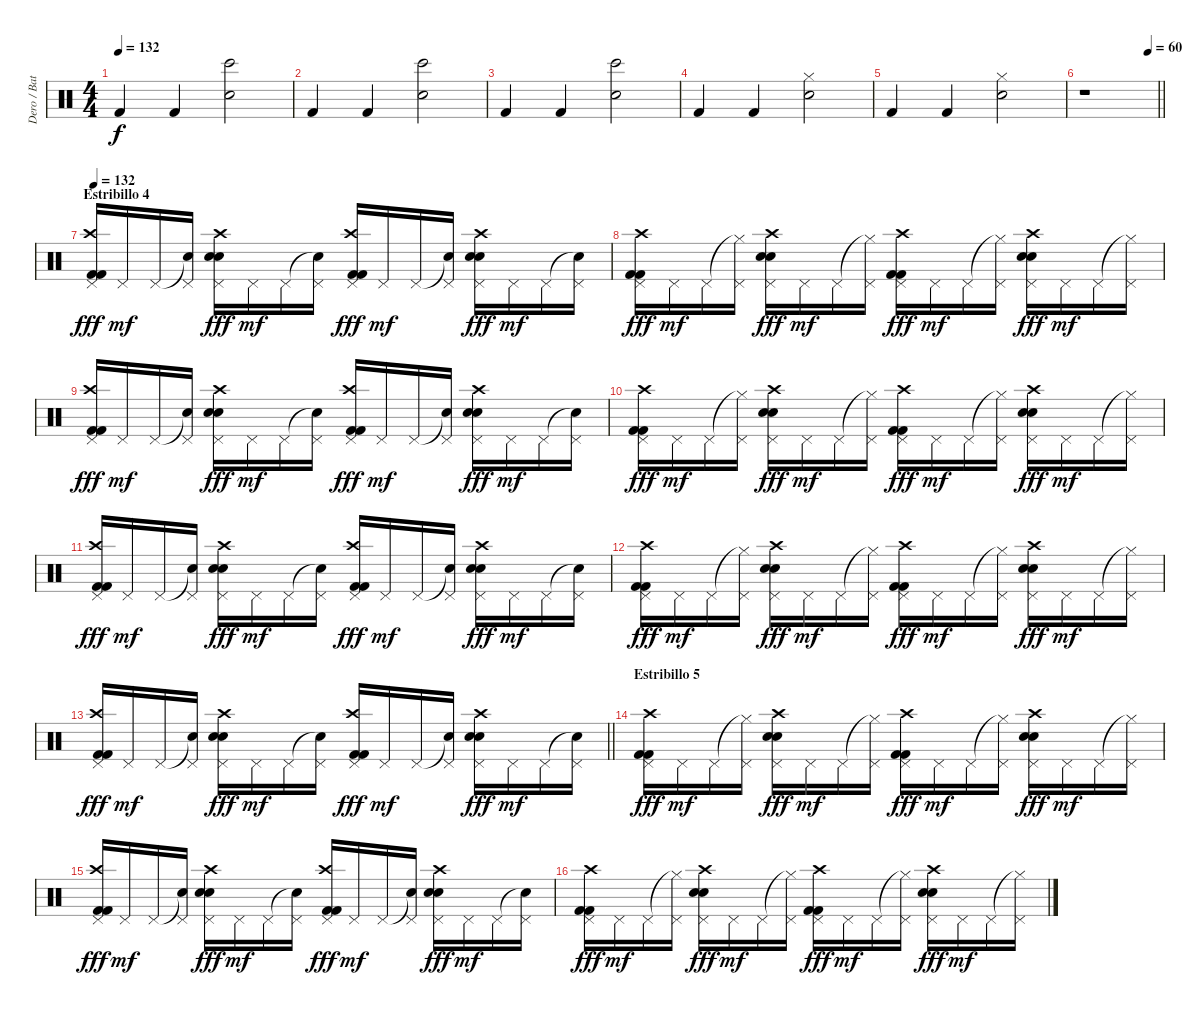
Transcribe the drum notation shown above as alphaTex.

\track ("Dero / Bateria" "Dero / Bat") {instrument percussion}
\staff {score}
\articulation defaults
\ts (4 4)
\tempo 132
\clef neutral
\ks c "Kick (hit) 2".4{dy f} "Kick (hit) 2".4
("Bongo High (hit)" "Snare (hit) 2").2 |
"Kick (hit) 2".4 "Kick (hit) 2".4 ("Bongo High (hit)" "Snare (hit) 2").2 |
"Kick (hit) 2".4 "Kick (hit) 2".4 ("Bongo High (hit)" "Snare (hit) 2").2 |
"Kick (hit) 2".4 "Kick (hit) 2".4 ("Hi-Hat (closed)" "Snare (hit) 2").2 |
"Kick (hit) 2".4 "Kick (hit) 2".4 ("Hi-Hat (closed)" "Snare (hit) 2").2 |
\tempo (60 0.875)
\barLineRight lightlight
r.1 |
\section ("" "Estribillo 4")
\tempo 132
("Crash high (hit)" "Pedal Hi-Hat (hit)" "Kick (hit) 2" "Kick (hit) 2").16{dy fff} "Pedal Hi-Hat (hit)".16{dy mf} "Pedal Hi-Hat (hit)".16 ("Snare (hit)"{t} "Pedal Hi-Hat (hit)").16 ("Crash high (hit)" "Pedal Hi-Hat (hit)" "Electric Snare (hit)" "Electric Snare (hit)").16{dy fff} "Pedal Hi-Hat (hit)".16{dy mf} "Pedal Hi-Hat (hit)".16 ("Snare (hit)"{t} "Pedal Hi-Hat (hit)").16 ("Crash high (hit)" "Pedal Hi-Hat (hit)" "Kick (hit) 2" "Kick (hit) 2").16{dy fff} "Pedal Hi-Hat (hit)".16{dy mf} "Pedal Hi-Hat (hit)".16 ("Snare (hit)"{t} "Pedal Hi-Hat (hit)").16 ("Crash high (hit)" "Pedal Hi-Hat (hit)" "Electric Snare (hit)" "Electric Snare (hit)").16{dy fff} "Pedal Hi-Hat (hit)".16{dy mf} "Pedal Hi-Hat (hit)".16 ("Snare (hit)"{t} "Pedal Hi-Hat (hit)").16 |
("Crash high (hit)" "Pedal Hi-Hat (hit)" "Kick (hit) 2" "Kick (hit) 2").16{dy fff} "Pedal Hi-Hat (hit)".16{dy mf} "Pedal Hi-Hat (hit)".16 ("Hi-Hat (closed)"{t} "Pedal Hi-Hat (hit)").16 ("Crash high (hit)" "Pedal Hi-Hat (hit)" "Electric Snare (hit)" "Electric Snare (hit)").16{dy fff} "Pedal Hi-Hat (hit)".16{dy mf} "Pedal Hi-Hat (hit)".16 ("Hi-Hat (closed)"{t} "Pedal Hi-Hat (hit)").16 ("Crash high (hit)" "Pedal Hi-Hat (hit)" "Kick (hit) 2" "Kick (hit) 2").16{dy fff} "Pedal Hi-Hat (hit)".16{dy mf} "Pedal Hi-Hat (hit)".16 ("Hi-Hat (closed)"{t} "Pedal Hi-Hat (hit)").16 ("Crash high (hit)" "Pedal Hi-Hat (hit)" "Electric Snare (hit)" "Electric Snare (hit)").16{dy fff} "Pedal Hi-Hat (hit)".16{dy mf} "Pedal Hi-Hat (hit)".16 ("Hi-Hat (closed)"{t} "Pedal Hi-Hat (hit)").16 |
("Crash high (hit)" "Pedal Hi-Hat (hit)" "Kick (hit) 2" "Kick (hit) 2").16{dy fff} "Pedal Hi-Hat (hit)".16{dy mf} "Pedal Hi-Hat (hit)".16 ("Snare (hit)"{t} "Pedal Hi-Hat (hit)").16 ("Crash high (hit)" "Pedal Hi-Hat (hit)" "Electric Snare (hit)" "Electric Snare (hit)").16{dy fff} "Pedal Hi-Hat (hit)".16{dy mf} "Pedal Hi-Hat (hit)".16 ("Snare (hit)"{t} "Pedal Hi-Hat (hit)").16 ("Crash high (hit)" "Pedal Hi-Hat (hit)" "Kick (hit) 2" "Kick (hit) 2").16{dy fff} "Pedal Hi-Hat (hit)".16{dy mf} "Pedal Hi-Hat (hit)".16 ("Snare (hit)"{t} "Pedal Hi-Hat (hit)").16 ("Crash high (hit)" "Pedal Hi-Hat (hit)" "Electric Snare (hit)" "Electric Snare (hit)").16{dy fff} "Pedal Hi-Hat (hit)".16{dy mf} "Pedal Hi-Hat (hit)".16 ("Snare (hit)"{t} "Pedal Hi-Hat (hit)").16 |
("Crash high (hit)" "Pedal Hi-Hat (hit)" "Kick (hit) 2" "Kick (hit) 2").16{dy fff} "Pedal Hi-Hat (hit)".16{dy mf} "Pedal Hi-Hat (hit)".16 ("Hi-Hat (closed)"{t} "Pedal Hi-Hat (hit)").16 ("Crash high (hit)" "Pedal Hi-Hat (hit)" "Electric Snare (hit)" "Electric Snare (hit)").16{dy fff} "Pedal Hi-Hat (hit)".16{dy mf} "Pedal Hi-Hat (hit)".16 ("Hi-Hat (closed)"{t} "Pedal Hi-Hat (hit)").16 ("Crash high (hit)" "Pedal Hi-Hat (hit)" "Kick (hit) 2" "Kick (hit) 2").16{dy fff} "Pedal Hi-Hat (hit)".16{dy mf} "Pedal Hi-Hat (hit)".16 ("Hi-Hat (closed)"{t} "Pedal Hi-Hat (hit)").16 ("Crash high (hit)" "Pedal Hi-Hat (hit)" "Electric Snare (hit)" "Electric Snare (hit)").16{dy fff} "Pedal Hi-Hat (hit)".16{dy mf} "Pedal Hi-Hat (hit)".16 ("Hi-Hat (closed)"{t} "Pedal Hi-Hat (hit)").16 |
("Crash high (hit)" "Pedal Hi-Hat (hit)" "Kick (hit) 2" "Kick (hit) 2").16{dy fff} "Pedal Hi-Hat (hit)".16{dy mf} "Pedal Hi-Hat (hit)".16 ("Snare (hit)"{t} "Pedal Hi-Hat (hit)").16 ("Crash high (hit)" "Pedal Hi-Hat (hit)" "Electric Snare (hit)" "Electric Snare (hit)").16{dy fff} "Pedal Hi-Hat (hit)".16{dy mf} "Pedal Hi-Hat (hit)".16 ("Snare (hit)"{t} "Pedal Hi-Hat (hit)").16 ("Crash high (hit)" "Pedal Hi-Hat (hit)" "Kick (hit) 2" "Kick (hit) 2").16{dy fff} "Pedal Hi-Hat (hit)".16{dy mf} "Pedal Hi-Hat (hit)".16 ("Snare (hit)"{t} "Pedal Hi-Hat (hit)").16 ("Crash high (hit)" "Pedal Hi-Hat (hit)" "Electric Snare (hit)" "Electric Snare (hit)").16{dy fff} "Pedal Hi-Hat (hit)".16{dy mf} "Pedal Hi-Hat (hit)".16 ("Snare (hit)"{t} "Pedal Hi-Hat (hit)").16 |
("Crash high (hit)" "Pedal Hi-Hat (hit)" "Kick (hit) 2" "Kick (hit) 2").16{dy fff} "Pedal Hi-Hat (hit)".16{dy mf} "Pedal Hi-Hat (hit)".16 ("Hi-Hat (closed)"{t} "Pedal Hi-Hat (hit)").16 ("Crash high (hit)" "Pedal Hi-Hat (hit)" "Electric Snare (hit)" "Electric Snare (hit)").16{dy fff} "Pedal Hi-Hat (hit)".16{dy mf} "Pedal Hi-Hat (hit)".16 ("Hi-Hat (closed)"{t} "Pedal Hi-Hat (hit)").16 ("Crash high (hit)" "Pedal Hi-Hat (hit)" "Kick (hit) 2" "Kick (hit) 2").16{dy fff} "Pedal Hi-Hat (hit)".16{dy mf} "Pedal Hi-Hat (hit)".16 ("Hi-Hat (closed)"{t} "Pedal Hi-Hat (hit)").16 ("Crash high (hit)" "Pedal Hi-Hat (hit)" "Electric Snare (hit)" "Electric Snare (hit)").16{dy fff} "Pedal Hi-Hat (hit)".16{dy mf} "Pedal Hi-Hat (hit)".16 ("Hi-Hat (closed)"{t} "Pedal Hi-Hat (hit)").16 |
\barLineRight lightlight
("Crash high (hit)" "Pedal Hi-Hat (hit)" "Kick (hit) 2" "Kick (hit) 2").16{dy fff} "Pedal Hi-Hat (hit)".16{dy mf} "Pedal Hi-Hat (hit)".16 ("Snare (hit)"{t} "Pedal Hi-Hat (hit)").16 ("Crash high (hit)" "Pedal Hi-Hat (hit)" "Electric Snare (hit)" "Electric Snare (hit)").16{dy fff} "Pedal Hi-Hat (hit)".16{dy mf} "Pedal Hi-Hat (hit)".16 ("Snare (hit)"{t} "Pedal Hi-Hat (hit)").16 ("Crash high (hit)" "Pedal Hi-Hat (hit)" "Kick (hit) 2" "Kick (hit) 2").16{dy fff} "Pedal Hi-Hat (hit)".16{dy mf} "Pedal Hi-Hat (hit)".16 ("Snare (hit)"{t} "Pedal Hi-Hat (hit)").16 ("Crash high (hit)" "Pedal Hi-Hat (hit)" "Electric Snare (hit)" "Electric Snare (hit)").16{dy fff} "Pedal Hi-Hat (hit)".16{dy mf} "Pedal Hi-Hat (hit)".16 ("Snare (hit)"{t} "Pedal Hi-Hat (hit)").16 |
\section ("" "Estribillo 5")
("Crash high (hit)" "Pedal Hi-Hat (hit)" "Kick (hit) 2" "Kick (hit) 2").16{dy fff} "Pedal Hi-Hat (hit)".16{dy mf} "Pedal Hi-Hat (hit)".16 ("Hi-Hat (closed)"{t} "Pedal Hi-Hat (hit)").16 ("Crash high (hit)" "Pedal Hi-Hat (hit)" "Electric Snare (hit)" "Electric Snare (hit)").16{dy fff} "Pedal Hi-Hat (hit)".16{dy mf} "Pedal Hi-Hat (hit)".16 ("Hi-Hat (closed)"{t} "Pedal Hi-Hat (hit)").16 ("Crash high (hit)" "Pedal Hi-Hat (hit)" "Kick (hit) 2" "Kick (hit) 2").16{dy fff} "Pedal Hi-Hat (hit)".16{dy mf} "Pedal Hi-Hat (hit)".16 ("Hi-Hat (closed)"{t} "Pedal Hi-Hat (hit)").16 ("Crash high (hit)" "Pedal Hi-Hat (hit)" "Electric Snare (hit)" "Electric Snare (hit)").16{dy fff} "Pedal Hi-Hat (hit)".16{dy mf} "Pedal Hi-Hat (hit)".16 ("Hi-Hat (closed)"{t} "Pedal Hi-Hat (hit)").16 |
("Crash high (hit)" "Pedal Hi-Hat (hit)" "Kick (hit) 2" "Kick (hit) 2").16{dy fff} "Pedal Hi-Hat (hit)".16{dy mf} "Pedal Hi-Hat (hit)".16 ("Snare (hit)"{t} "Pedal Hi-Hat (hit)").16 ("Crash high (hit)" "Pedal Hi-Hat (hit)" "Electric Snare (hit)" "Electric Snare (hit)").16{dy fff} "Pedal Hi-Hat (hit)".16{dy mf} "Pedal Hi-Hat (hit)".16 ("Snare (hit)"{t} "Pedal Hi-Hat (hit)").16 ("Crash high (hit)" "Pedal Hi-Hat (hit)" "Kick (hit) 2" "Kick (hit) 2").16{dy fff} "Pedal Hi-Hat (hit)".16{dy mf} "Pedal Hi-Hat (hit)".16 ("Snare (hit)"{t} "Pedal Hi-Hat (hit)").16 ("Crash high (hit)" "Pedal Hi-Hat (hit)" "Electric Snare (hit)" "Electric Snare (hit)").16{dy fff} "Pedal Hi-Hat (hit)".16{dy mf} "Pedal Hi-Hat (hit)".16 ("Snare (hit)"{t} "Pedal Hi-Hat (hit)").16 |
("Crash high (hit)" "Pedal Hi-Hat (hit)" "Kick (hit) 2" "Kick (hit) 2").16{dy fff} "Pedal Hi-Hat (hit)".16{dy mf} "Pedal Hi-Hat (hit)".16 ("Hi-Hat (closed)"{t} "Pedal Hi-Hat (hit)").16 ("Crash high (hit)" "Pedal Hi-Hat (hit)" "Electric Snare (hit)" "Electric Snare (hit)").16{dy fff} "Pedal Hi-Hat (hit)".16{dy mf} "Pedal Hi-Hat (hit)".16 ("Hi-Hat (closed)"{t} "Pedal Hi-Hat (hit)").16 ("Crash high (hit)" "Pedal Hi-Hat (hit)" "Kick (hit) 2" "Kick (hit) 2").16{dy fff} "Pedal Hi-Hat (hit)".16{dy mf} "Pedal Hi-Hat (hit)".16 ("Hi-Hat (closed)"{t} "Pedal Hi-Hat (hit)").16 ("Crash high (hit)" "Pedal Hi-Hat (hit)" "Electric Snare (hit)" "Electric Snare (hit)").16{dy fff} "Pedal Hi-Hat (hit)".16{dy mf} "Pedal Hi-Hat (hit)".16 ("Hi-Hat (closed)"{t} "Pedal Hi-Hat (hit)").16
